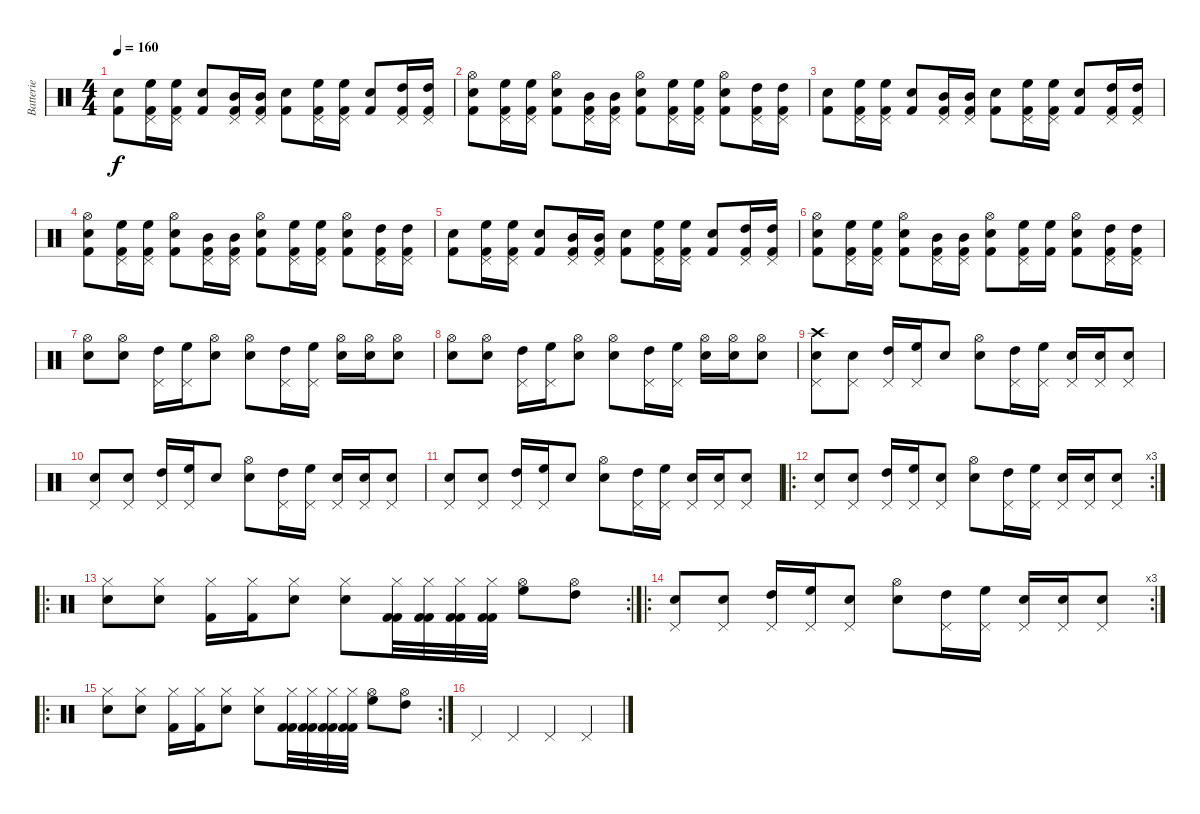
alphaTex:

\track ("Batterie" "Batterie") {instrument percussion}
\staff {score}
\articulation defaults
\ts (4 4)
\tempo 160
\clef neutral
\ks c
("Snare (hit) 2" "Kick (hit) 2").8{dy f} ("Pedal Hi-Hat (hit)" "High Floor Tom (hit)" "Kick (hit) 2").16 ("Pedal Hi-Hat (hit)" "High Floor Tom (hit)" "Kick (hit) 2").16 ("Snare (hit) 2" "Kick (hit) 2").8 ("Pedal Hi-Hat (hit)" "Mid Tom (hit)" "Kick (hit) 2").16 ("Pedal Hi-Hat (hit)" "Mid Tom (hit)" "Kick (hit) 2").16 ("Snare (hit) 2" "Kick (hit) 2").8 ("Pedal Hi-Hat (hit)" "High Floor Tom (hit)" "Kick (hit) 2").16 ("Pedal Hi-Hat (hit)" "High Floor Tom (hit)" "Kick (hit) 2").16 ("Snare (hit) 2" "Kick (hit) 2").8 ("Pedal Hi-Hat (hit)" "High Tom (hit)" "Kick (hit) 2").16 ("Pedal Hi-Hat (hit)" "High Tom (hit)" "Kick (hit) 2").16 |
("Hi-Hat (open)" "Snare (hit) 2" "Kick (hit) 2").8 ("Pedal Hi-Hat (hit)" "High Floor Tom (hit)" "Kick (hit) 2").16 ("Pedal Hi-Hat (hit)" "High Floor Tom (hit)" "Kick (hit) 2").16 ("Hi-Hat (open)" "Snare (hit) 2" "Kick (hit) 2").8 ("Pedal Hi-Hat (hit)" "Mid Tom (hit)" "Kick (hit) 2").16 ("Pedal Hi-Hat (hit)" "Mid Tom (hit)" "Kick (hit) 2").16 ("Hi-Hat (open)" "Snare (hit) 2" "Kick (hit) 2").8 ("Pedal Hi-Hat (hit)" "High Floor Tom (hit)" "Kick (hit) 2").16 ("Pedal Hi-Hat (hit)" "High Floor Tom (hit)" "Kick (hit) 2").16 ("Hi-Hat (open)" "Snare (hit) 2" "Kick (hit) 2").8 ("Pedal Hi-Hat (hit)" "High Tom (hit)" "Kick (hit) 2").16 ("Pedal Hi-Hat (hit)" "High Tom (hit)" "Kick (hit) 2").16 |
("Snare (hit) 2" "Kick (hit) 2").8 ("Pedal Hi-Hat (hit)" "High Floor Tom (hit)" "Kick (hit) 2").16 ("Pedal Hi-Hat (hit)" "High Floor Tom (hit)" "Kick (hit) 2").16 ("Snare (hit) 2" "Kick (hit) 2").8 ("Pedal Hi-Hat (hit)" "Mid Tom (hit)" "Kick (hit) 2").16 ("Pedal Hi-Hat (hit)" "Mid Tom (hit)" "Kick (hit) 2").16 ("Snare (hit) 2" "Kick (hit) 2").8 ("Pedal Hi-Hat (hit)" "High Floor Tom (hit)" "Kick (hit) 2").16 ("Pedal Hi-Hat (hit)" "High Floor Tom (hit)" "Kick (hit) 2").16 ("Snare (hit) 2" "Kick (hit) 2").8 ("Pedal Hi-Hat (hit)" "High Tom (hit)" "Kick (hit) 2").16 ("Pedal Hi-Hat (hit)" "High Tom (hit)" "Kick (hit) 2").16 |
("Hi-Hat (open)" "Snare (hit) 2" "Kick (hit) 2").8 ("Pedal Hi-Hat (hit)" "High Floor Tom (hit)" "Kick (hit) 2").16 ("Pedal Hi-Hat (hit)" "High Floor Tom (hit)" "Kick (hit) 2").16 ("Hi-Hat (open)" "Snare (hit) 2" "Kick (hit) 2").8 ("Pedal Hi-Hat (hit)" "Mid Tom (hit)" "Kick (hit) 2").16 ("Pedal Hi-Hat (hit)" "Mid Tom (hit)" "Kick (hit) 2").16 ("Hi-Hat (open)" "Snare (hit) 2" "Kick (hit) 2").8 ("Pedal Hi-Hat (hit)" "High Floor Tom (hit)" "Kick (hit) 2").16 ("Pedal Hi-Hat (hit)" "High Floor Tom (hit)" "Kick (hit) 2").16 ("Hi-Hat (open)" "Snare (hit) 2" "Kick (hit) 2").8 ("Pedal Hi-Hat (hit)" "High Tom (hit)" "Kick (hit) 2").16 ("Pedal Hi-Hat (hit)" "High Tom (hit)" "Kick (hit) 2").16 |
("Snare (hit) 2" "Kick (hit) 2").8 ("Pedal Hi-Hat (hit)" "High Floor Tom (hit)" "Kick (hit) 2").16 ("Pedal Hi-Hat (hit)" "High Floor Tom (hit)" "Kick (hit) 2").16 ("Snare (hit) 2" "Kick (hit) 2").8 ("Pedal Hi-Hat (hit)" "Mid Tom (hit)" "Kick (hit) 2").16 ("Pedal Hi-Hat (hit)" "Mid Tom (hit)" "Kick (hit) 2").16 ("Snare (hit) 2" "Kick (hit) 2").8 ("Pedal Hi-Hat (hit)" "High Floor Tom (hit)" "Kick (hit) 2").16 ("Pedal Hi-Hat (hit)" "High Floor Tom (hit)" "Kick (hit) 2").16 ("Snare (hit) 2" "Kick (hit) 2").8 ("Pedal Hi-Hat (hit)" "High Tom (hit)" "Kick (hit) 2").16 ("Pedal Hi-Hat (hit)" "High Tom (hit)" "Kick (hit) 2").16 |
("Hi-Hat (open)" "Snare (hit) 2" "Kick (hit) 2").8 ("Pedal Hi-Hat (hit)" "High Floor Tom (hit)" "Kick (hit) 2").16 ("Pedal Hi-Hat (hit)" "High Floor Tom (hit)" "Kick (hit) 2").16 ("Hi-Hat (open)" "Snare (hit) 2" "Kick (hit) 2").8 ("Pedal Hi-Hat (hit)" "Mid Tom (hit)" "Kick (hit) 2").16 ("Pedal Hi-Hat (hit)" "Mid Tom (hit)" "Kick (hit) 2").16 ("Hi-Hat (open)" "Snare (hit) 2" "Kick (hit) 2").8 ("Pedal Hi-Hat (hit)" "High Floor Tom (hit)" "Kick (hit) 2").16 ("High Floor Tom (hit)" "Kick (hit) 2").16 ("Hi-Hat (open)" "Snare (hit) 2" "Kick (hit) 2").8 ("Pedal Hi-Hat (hit)" "High Tom (hit)" "Kick (hit) 2").16 ("Pedal Hi-Hat (hit)" "High Tom (hit)" "Kick (hit) 2").16 |
("Hi-Hat (open)" "Snare (hit) 2").8 ("Hi-Hat (open)" "Snare (hit) 2").8 ("Pedal Hi-Hat (hit)" "High Tom (hit)").16 ("Pedal Hi-Hat (hit)" "High Floor Tom (hit)").16 ("Hi-Hat (open)" "Snare (hit) 2").8 ("Hi-Hat (open)" "Snare (hit) 2").8 ("Pedal Hi-Hat (hit)" "High Tom (hit)").16 ("Pedal Hi-Hat (hit)" "High Floor Tom (hit)").16 ("Hi-Hat (open)" "Snare (hit) 2").16 ("Hi-Hat (open)" "Snare (hit) 2").16 ("Hi-Hat (open)" "Snare (hit) 2").8 |
("Hi-Hat (open)" "Snare (hit) 2").8 ("Hi-Hat (open)" "Snare (hit) 2").8 ("Pedal Hi-Hat (hit)" "High Tom (hit)").16 ("Pedal Hi-Hat (hit)" "High Floor Tom (hit)").16 ("Hi-Hat (open)" "Snare (hit) 2").8 ("Hi-Hat (open)" "Snare (hit) 2").8 ("Pedal Hi-Hat (hit)" "High Tom (hit)").16 ("Pedal Hi-Hat (hit)" "High Floor Tom (hit)").16 ("Hi-Hat (open)" "Snare (hit) 2").16 ("Hi-Hat (open)" "Snare (hit) 2").16 ("Hi-Hat (open)" "Snare (hit) 2").8 |
("Crash high (hit)" "Pedal Hi-Hat (hit)" "Snare (hit) 2").8 ("Pedal Hi-Hat (hit)" "Snare (hit) 2").8 ("Pedal Hi-Hat (hit)" "High Tom (hit)").16 ("Pedal Hi-Hat (hit)" "High Floor Tom (hit)").16 "Snare (hit) 2".8 ("Hi-Hat (open)" "Snare (hit) 2").8 ("Pedal Hi-Hat (hit)" "High Tom (hit)").16 ("Pedal Hi-Hat (hit)" "High Floor Tom (hit)").16 ("Pedal Hi-Hat (hit)" "Snare (hit) 2").16 ("Pedal Hi-Hat (hit)" "Snare (hit) 2").16 ("Pedal Hi-Hat (hit)" "Snare (hit) 2").8 |
("Pedal Hi-Hat (hit)" "Snare (hit) 2").8 ("Pedal Hi-Hat (hit)" "Snare (hit) 2").8 ("Pedal Hi-Hat (hit)" "High Tom (hit)").16 ("Pedal Hi-Hat (hit)" "High Floor Tom (hit)").16 "Snare (hit) 2".8 ("Hi-Hat (open)" "Snare (hit) 2").8 ("Pedal Hi-Hat (hit)" "High Tom (hit)").16 ("Pedal Hi-Hat (hit)" "High Floor Tom (hit)").16 ("Pedal Hi-Hat (hit)" "Snare (hit) 2").16 ("Pedal Hi-Hat (hit)" "Snare (hit) 2").16 ("Pedal Hi-Hat (hit)" "Snare (hit) 2").8 |
("Pedal Hi-Hat (hit)" "Snare (hit) 2").8 ("Pedal Hi-Hat (hit)" "Snare (hit) 2").8 ("Pedal Hi-Hat (hit)" "High Tom (hit)").16 ("Pedal Hi-Hat (hit)" "High Floor Tom (hit)").16 "Snare (hit) 2".8 ("Hi-Hat (open)" "Snare (hit) 2").8 ("Pedal Hi-Hat (hit)" "High Tom (hit)").16 ("Pedal Hi-Hat (hit)" "High Floor Tom (hit)").16 ("Pedal Hi-Hat (hit)" "Snare (hit) 2").16 ("Pedal Hi-Hat (hit)" "Snare (hit) 2").16 ("Pedal Hi-Hat (hit)" "Snare (hit) 2").8 |
\ro
\rc 3
("Pedal Hi-Hat (hit)" "Snare (hit) 2").8 ("Pedal Hi-Hat (hit)" "Snare (hit) 2").8 ("Pedal Hi-Hat (hit)" "High Tom (hit)").16 ("Pedal Hi-Hat (hit)" "High Floor Tom (hit)").16 ("Pedal Hi-Hat (hit)" "Snare (hit) 2").8 ("Hi-Hat (open)" "Snare (hit) 2").8 ("Pedal Hi-Hat (hit)" "High Tom (hit)").16 ("Pedal Hi-Hat (hit)" "High Floor Tom (hit)").16 ("Pedal Hi-Hat (hit)" "Snare (hit) 2").16 ("Pedal Hi-Hat (hit)" "Snare (hit) 2").16 ("Pedal Hi-Hat (hit)" "Snare (hit) 2").8 |
\ro
\rc 2
("Hi-Hat (closed)" "Snare (hit) 2").8 ("Hi-Hat (closed)" "Snare (hit) 2").8 ("Hi-Hat (closed)" "Kick (hit) 2").16 ("Hi-Hat (closed)" "Kick (hit) 2").16 ("Hi-Hat (closed)" "Snare (hit) 2").8 ("Hi-Hat (closed)" "Snare (hit) 2").8 ("Kick (hit) 2" "Hi-Hat (closed)" "Kick (hit) 2").32 ("Kick (hit) 2" "Hi-Hat (closed)" "Kick (hit) 2").32 ("Kick (hit) 2" "Hi-Hat (closed)" "Kick (hit) 2").32 ("Kick (hit) 2" "Hi-Hat (closed)" "Kick (hit) 2").32 ("Hi-Hat (open)" "High Floor Tom (hit)").8 ("Hi-Hat (open)" "High Tom (hit)").8 |
\ro
\rc 3
("Pedal Hi-Hat (hit)" "Snare (hit) 2").8 ("Pedal Hi-Hat (hit)" "Snare (hit) 2").8 ("Pedal Hi-Hat (hit)" "High Tom (hit)").16 ("Pedal Hi-Hat (hit)" "High Floor Tom (hit)").16 ("Pedal Hi-Hat (hit)" "Snare (hit) 2").8 ("Hi-Hat (open)" "Snare (hit) 2").8 ("Pedal Hi-Hat (hit)" "High Tom (hit)").16 ("Pedal Hi-Hat (hit)" "High Floor Tom (hit)").16 ("Pedal Hi-Hat (hit)" "Snare (hit) 2").16 ("Pedal Hi-Hat (hit)" "Snare (hit) 2").16 ("Pedal Hi-Hat (hit)" "Snare (hit) 2").8 |
\ro
\rc 2
("Hi-Hat (closed)" "Snare (hit) 2").8 ("Hi-Hat (closed)" "Snare (hit) 2").8 ("Hi-Hat (closed)" "Kick (hit) 2").16 ("Hi-Hat (closed)" "Kick (hit) 2").16 ("Hi-Hat (closed)" "Snare (hit) 2").8 ("Hi-Hat (closed)" "Snare (hit) 2").8 ("Kick (hit) 2" "Hi-Hat (closed)" "Kick (hit) 2").32 ("Kick (hit) 2" "Hi-Hat (closed)" "Kick (hit) 2").32 ("Kick (hit) 2" "Hi-Hat (closed)" "Kick (hit) 2").32 ("Kick (hit) 2" "Hi-Hat (closed)" "Kick (hit) 2").32 ("Hi-Hat (open)" "High Floor Tom (hit)").8 ("Hi-Hat (open)" "High Tom (hit)").8 |
"Pedal Hi-Hat (hit)".4 "Pedal Hi-Hat (hit)".4 "Pedal Hi-Hat (hit)".4 "Pedal Hi-Hat (hit)".4
